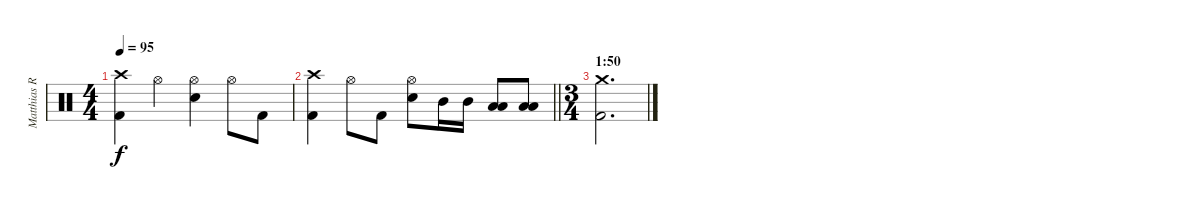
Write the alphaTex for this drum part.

\track ("Matthias R." "Matthias R") {instrument percussion}
\staff {score}
\articulation defaults
\ts (4 4)
\tempo 95
\clef neutral
\ks c
("Kick (hit) 2" "Crash high (hit)").4{dy f} "Hi-Hat (open)".4 ("Snare (hit) 2" "Hi-Hat (open)").4 "Hi-Hat (open)".8 "Kick (hit) 2".8 |
\barLineRight lightlight
("Kick (hit) 2" "Crash high (hit)").4 "Hi-Hat (open)".8 "Kick (hit) 2".8 ("Snare (hit) 2" "Hi-Hat (open)").8 "Mid Tom (hit)".16 "Mid Tom (hit)".16 ("Low Tom (hit)" "Low Tom (hit)").8 ("Low Tom (hit)" "Low Tom (hit)").8 |
\ts (3 4)
\section ("" "1:50")
("Kick (hit) 2" "Crash medium (hit)").2{d}
